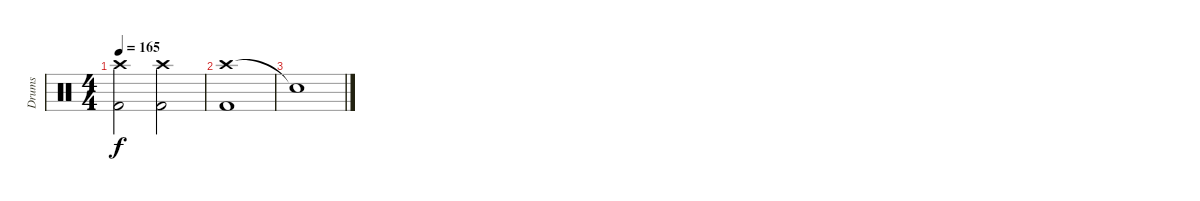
\track ("Drums" "Drums") {instrument percussion}
\staff {score}
\articulation defaults
\ts (4 4)
\tempo 165
\clef neutral
\ks c
("Crash high (hit)" "Kick (hit) 2").2{dy f} ("Crash high (hit)" "Kick (hit) 2").2 |
("Crash high (hit)" "Kick (hit) 2").1 |
"Snare (hit)"{t}.1
